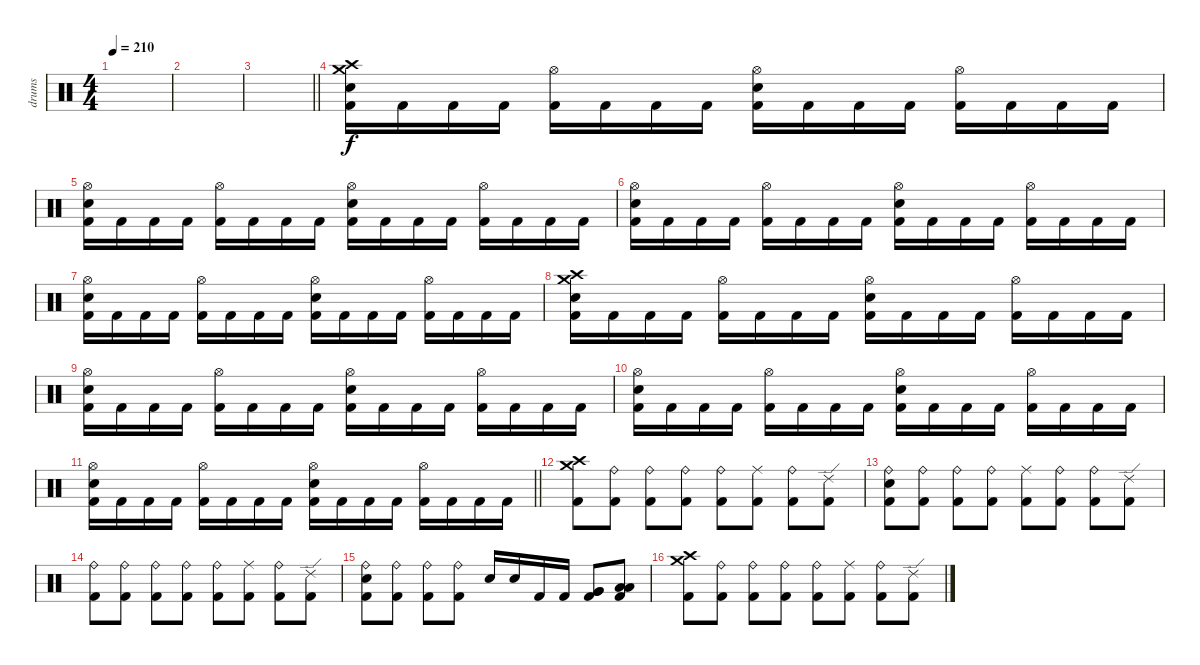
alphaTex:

\track ("drums" "drums") {instrument percussion}
\staff {score}
\articulation defaults
\ts (4 4)
\tempo 210
\clef neutral
\ks c
|
|
\barLineRight lightlight
|
\section ("" "")
("Crash high (hit)" "Crash medium (hit)" "Electric Snare (hit)" "Kick (hit) 2").16 "Kick (hit) 2".16 "Kick (hit) 2".16 "Kick (hit) 2".16 ("Hi-Hat (open)" "Kick (hit) 2").16 "Kick (hit) 2".16 "Kick (hit) 2".16 "Kick (hit) 2".16 ("Hi-Hat (open)" "Electric Snare (hit)" "Kick (hit) 2").16 "Kick (hit) 2".16 "Kick (hit) 2".16 "Kick (hit) 2".16 ("Hi-Hat (open)" "Kick (hit) 2").16 "Kick (hit) 2".16 "Kick (hit) 2".16 "Kick (hit) 2".16 |
("Hi-Hat (open)" "Electric Snare (hit)" "Kick (hit) 2").16 "Kick (hit) 2".16 "Kick (hit) 2".16 "Kick (hit) 2".16 ("Hi-Hat (open)" "Kick (hit) 2").16 "Kick (hit) 2".16 "Kick (hit) 2".16 "Kick (hit) 2".16 ("Hi-Hat (open)" "Electric Snare (hit)" "Kick (hit) 2").16 "Kick (hit) 2".16 "Kick (hit) 2".16 "Kick (hit) 2".16 ("Hi-Hat (open)" "Kick (hit) 2").16 "Kick (hit) 2".16 "Kick (hit) 2".16 "Kick (hit) 2".16 |
("Hi-Hat (open)" "Electric Snare (hit)" "Kick (hit) 2").16 "Kick (hit) 2".16 "Kick (hit) 2".16 "Kick (hit) 2".16 ("Hi-Hat (open)" "Kick (hit) 2").16 "Kick (hit) 2".16 "Kick (hit) 2".16 "Kick (hit) 2".16 ("Hi-Hat (open)" "Electric Snare (hit)" "Kick (hit) 2").16 "Kick (hit) 2".16 "Kick (hit) 2".16 "Kick (hit) 2".16 ("Hi-Hat (open)" "Kick (hit) 2").16 "Kick (hit) 2".16 "Kick (hit) 2".16 "Kick (hit) 2".16 |
("Hi-Hat (open)" "Electric Snare (hit)" "Kick (hit) 2").16 "Kick (hit) 2".16 "Kick (hit) 2".16 "Kick (hit) 2".16 ("Hi-Hat (open)" "Kick (hit) 2").16 "Kick (hit) 2".16 "Kick (hit) 2".16 "Kick (hit) 2".16 ("Hi-Hat (open)" "Electric Snare (hit)" "Kick (hit) 2").16 "Kick (hit) 2".16 "Kick (hit) 2".16 "Kick (hit) 2".16 ("Hi-Hat (open)" "Kick (hit) 2").16 "Kick (hit) 2".16 "Kick (hit) 2".16 "Kick (hit) 2".16 |
("Crash high (hit)" "Crash medium (hit)" "Electric Snare (hit)" "Kick (hit) 2").16 "Kick (hit) 2".16 "Kick (hit) 2".16 "Kick (hit) 2".16 ("Hi-Hat (open)" "Kick (hit) 2").16 "Kick (hit) 2".16 "Kick (hit) 2".16 "Kick (hit) 2".16 ("Hi-Hat (open)" "Electric Snare (hit)" "Kick (hit) 2").16 "Kick (hit) 2".16 "Kick (hit) 2".16 "Kick (hit) 2".16 ("Hi-Hat (open)" "Kick (hit) 2").16 "Kick (hit) 2".16 "Kick (hit) 2".16 "Kick (hit) 2".16 |
("Hi-Hat (open)" "Electric Snare (hit)" "Kick (hit) 2").16 "Kick (hit) 2".16 "Kick (hit) 2".16 "Kick (hit) 2".16 ("Hi-Hat (open)" "Kick (hit) 2").16 "Kick (hit) 2".16 "Kick (hit) 2".16 "Kick (hit) 2".16 ("Hi-Hat (open)" "Electric Snare (hit)" "Kick (hit) 2").16 "Kick (hit) 2".16 "Kick (hit) 2".16 "Kick (hit) 2".16 ("Hi-Hat (open)" "Kick (hit) 2").16 "Kick (hit) 2".16 "Kick (hit) 2".16 "Kick (hit) 2".16 |
("Hi-Hat (open)" "Electric Snare (hit)" "Kick (hit) 2").16 "Kick (hit) 2".16 "Kick (hit) 2".16 "Kick (hit) 2".16 ("Hi-Hat (open)" "Kick (hit) 2").16 "Kick (hit) 2".16 "Kick (hit) 2".16 "Kick (hit) 2".16 ("Hi-Hat (open)" "Electric Snare (hit)" "Kick (hit) 2").16 "Kick (hit) 2".16 "Kick (hit) 2".16 "Kick (hit) 2".16 ("Hi-Hat (open)" "Kick (hit) 2").16 "Kick (hit) 2".16 "Kick (hit) 2".16 "Kick (hit) 2".16 |
\barLineRight lightlight
("Hi-Hat (open)" "Electric Snare (hit)" "Kick (hit) 2").16 "Kick (hit) 2".16 "Kick (hit) 2".16 "Kick (hit) 2".16 ("Hi-Hat (open)" "Kick (hit) 2").16 "Kick (hit) 2".16 "Kick (hit) 2".16 "Kick (hit) 2".16 ("Hi-Hat (open)" "Electric Snare (hit)" "Kick (hit) 2").16 "Kick (hit) 2".16 "Kick (hit) 2".16 "Kick (hit) 2".16 ("Hi-Hat (open)" "Kick (hit) 2").16 "Kick (hit) 2".16 "Kick (hit) 2".16 "Kick (hit) 2".16 |
("Crash high (hit)" "Crash medium (hit)" "Kick (hit) 2").8 ("Ride (bell)" "Kick (hit) 2").8 ("Ride (bell)" "Kick (hit) 2").8 ("Ride (bell)" "Kick (hit) 2").8 ("Ride (bell)" "Kick (hit) 2").8 ("Ride (middle)" "Kick (hit) 2").8 ("Ride (bell)" "Kick (hit) 2").8 ("Ride (edge) 2" "Kick (hit) 2").8 |
("Ride (bell)" "Electric Snare (hit)" "Kick (hit) 2").8 ("Ride (bell)" "Kick (hit) 2").8 ("Ride (bell)" "Kick (hit) 2").8 ("Ride (bell)" "Kick (hit) 2").8 ("Ride (middle)" "Kick (hit) 2").8 ("Ride (bell)" "Kick (hit) 2").8 ("Ride (bell)" "Kick (hit) 2").8 ("Ride (edge) 2" "Kick (hit) 2").8 |
("Ride (bell)" "Kick (hit) 2").8 ("Ride (bell)" "Kick (hit) 2").8 ("Ride (bell)" "Kick (hit) 2").8 ("Ride (bell)" "Kick (hit) 2").8 ("Ride (bell)" "Kick (hit) 2").8 ("Ride (middle)" "Kick (hit) 2").8 ("Ride (bell)" "Kick (hit) 2").8 ("Ride (edge) 2" "Kick (hit) 2").8 |
("Ride (bell)" "Electric Snare (hit)" "Kick (hit) 2").8 ("Ride (bell)" "Kick (hit) 2").8 ("Ride (bell)" "Kick (hit) 2").8 ("Ride (bell)" "Kick (hit) 2").8 "Electric Snare (hit)".16 "Electric Snare (hit)".16 "Kick (hit) 2".16 "Kick (hit) 2".16 ("Very Low Tom (hit)" "Very Low Tom (hit)" "Kick (hit) 2").8 ("Low Floor Tom (hit)" "Low Floor Tom (hit)" "Kick (hit) 2").8 |
("Crash high (hit)" "Crash medium (hit)" "Kick (hit) 2").8 ("Ride (bell)" "Kick (hit) 2").8 ("Ride (bell)" "Kick (hit) 2").8 ("Ride (bell)" "Kick (hit) 2").8 ("Ride (bell)" "Kick (hit) 2").8 ("Ride (middle)" "Kick (hit) 2").8 ("Ride (bell)" "Kick (hit) 2").8 ("Ride (edge) 2" "Kick (hit) 2").8
